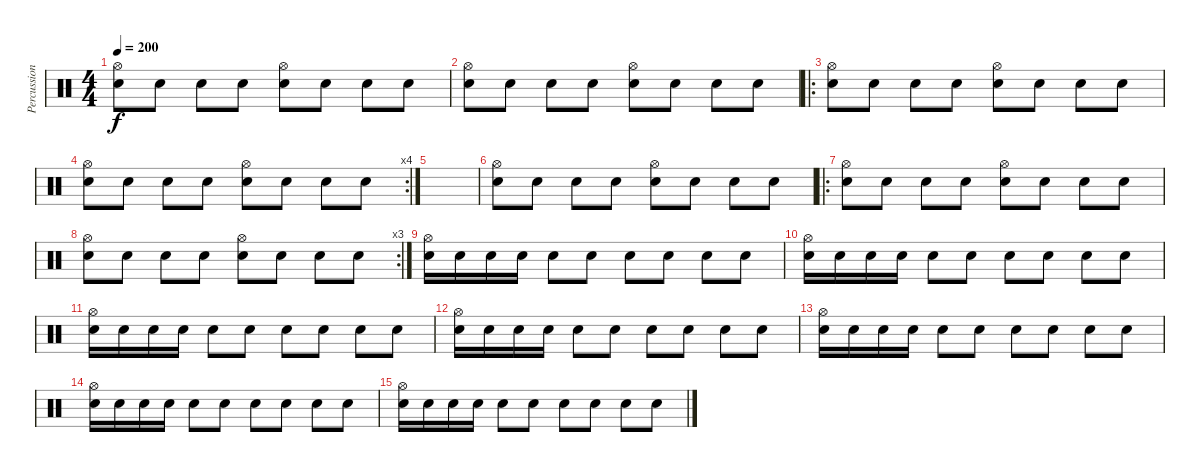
\track ("Percussion" "Percussion") {instrument percussion}
\staff {score}
\articulation defaults
\ts (4 4)
\tempo 200
\clef neutral
\ks c
("Hi-Hat (open)" "Snare (hit) 2").8{dy f} "Snare (hit) 2".8 "Snare (hit) 2".8 "Electric Snare (hit)".8 ("Hi-Hat (open)" "Snare (hit) 2").8 "Snare (hit) 2".8 "Snare (hit) 2".8 "Electric Snare (hit)".8 |
("Hi-Hat (open)" "Snare (hit) 2").8 "Snare (hit) 2".8 "Snare (hit) 2".8 "Electric Snare (hit)".8 ("Hi-Hat (open)" "Snare (hit) 2").8 "Snare (hit) 2".8 "Snare (hit) 2".8 "Electric Snare (hit)".8 |
\ro
("Hi-Hat (open)" "Snare (hit) 2").8 "Snare (hit) 2".8 "Snare (hit) 2".8 "Electric Snare (hit)".8 ("Hi-Hat (open)" "Snare (hit) 2").8 "Snare (hit) 2".8 "Snare (hit) 2".8 "Electric Snare (hit)".8 |
\rc 4
("Hi-Hat (open)" "Snare (hit) 2").8 "Snare (hit) 2".8 "Snare (hit) 2".8 "Electric Snare (hit)".8 ("Hi-Hat (open)" "Snare (hit) 2").8 "Snare (hit) 2".8 "Snare (hit) 2".8 "Electric Snare (hit)".8 |
|
("Hi-Hat (open)" "Snare (hit) 2").8 "Snare (hit) 2".8 "Snare (hit) 2".8 "Electric Snare (hit)".8 ("Hi-Hat (open)" "Snare (hit) 2").8 "Snare (hit) 2".8 "Snare (hit) 2".8 "Electric Snare (hit)".8 |
\ro
("Hi-Hat (open)" "Snare (hit) 2").8 "Snare (hit) 2".8 "Snare (hit) 2".8 "Electric Snare (hit)".8 ("Hi-Hat (open)" "Snare (hit) 2").8 "Snare (hit) 2".8 "Snare (hit) 2".8 "Electric Snare (hit)".8 |
\rc 3
("Hi-Hat (open)" "Snare (hit) 2").8 "Snare (hit) 2".8 "Snare (hit) 2".8 "Electric Snare (hit)".8 ("Hi-Hat (open)" "Snare (hit) 2").8 "Snare (hit) 2".8 "Snare (hit) 2".8 "Electric Snare (hit)".8 |
("Hi-Hat (open)" "Snare (hit) 2").16 "Snare (hit) 2".16 "Snare (hit) 2".16 "Snare (hit) 2".16 "Snare (hit) 2".8 "Snare (hit) 2".8 "Snare (hit) 2".8 "Snare (hit) 2".8 "Snare (hit) 2".8 "Snare (hit) 2".8 |
("Hi-Hat (open)" "Snare (hit) 2").16 "Snare (hit) 2".16 "Snare (hit) 2".16 "Snare (hit) 2".16 "Snare (hit) 2".8 "Snare (hit) 2".8 "Snare (hit) 2".8 "Snare (hit) 2".8 "Snare (hit) 2".8 "Snare (hit) 2".8 |
("Hi-Hat (open)" "Snare (hit) 2").16 "Snare (hit) 2".16 "Snare (hit) 2".16 "Snare (hit) 2".16 "Snare (hit) 2".8 "Snare (hit) 2".8 "Snare (hit) 2".8 "Snare (hit) 2".8 "Snare (hit) 2".8 "Snare (hit) 2".8 |
("Hi-Hat (open)" "Snare (hit) 2").16 "Snare (hit) 2".16 "Snare (hit) 2".16 "Snare (hit) 2".16 "Snare (hit) 2".8 "Snare (hit) 2".8 "Snare (hit) 2".8 "Snare (hit) 2".8 "Snare (hit) 2".8 "Snare (hit) 2".8 |
("Hi-Hat (open)" "Snare (hit) 2").16 "Snare (hit) 2".16 "Snare (hit) 2".16 "Snare (hit) 2".16 "Snare (hit) 2".8 "Snare (hit) 2".8 "Snare (hit) 2".8 "Snare (hit) 2".8 "Snare (hit) 2".8 "Snare (hit) 2".8 |
("Hi-Hat (open)" "Snare (hit) 2").16 "Snare (hit) 2".16 "Snare (hit) 2".16 "Snare (hit) 2".16 "Snare (hit) 2".8 "Snare (hit) 2".8 "Snare (hit) 2".8 "Snare (hit) 2".8 "Snare (hit) 2".8 "Snare (hit) 2".8 |
("Hi-Hat (open)" "Snare (hit) 2").16 "Snare (hit) 2".16 "Snare (hit) 2".16 "Snare (hit) 2".16 "Snare (hit) 2".8 "Snare (hit) 2".8 "Snare (hit) 2".8 "Snare (hit) 2".8 "Snare (hit) 2".8 "Snare (hit) 2".8
